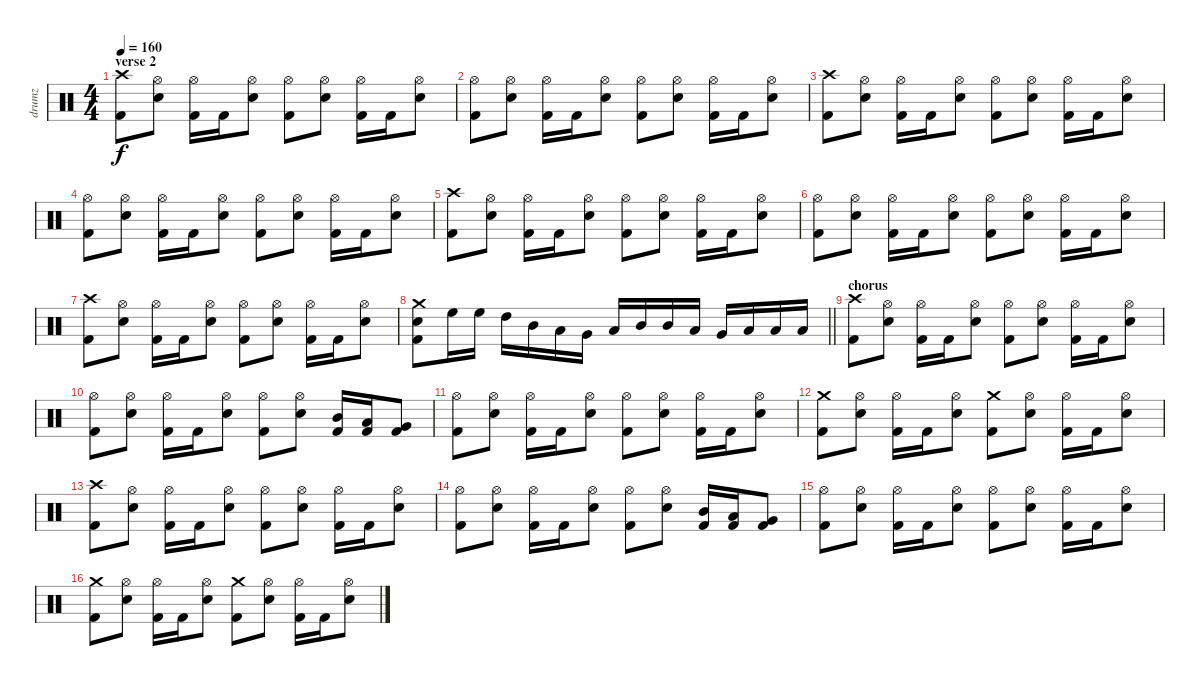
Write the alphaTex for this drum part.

\track ("drumz" "drumz") {instrument percussion}
\staff {score}
\articulation defaults
\ts (4 4)
\section ("" "verse 2")
\tempo 160
\clef neutral
\ks c
("Crash high (hit)" "Kick (hit) 2").8{dy f} ("Hi-Hat (open)" "Electric Snare (hit)").8 ("Hi-Hat (open)" "Kick (hit) 2").16 "Kick (hit) 2".16 ("Hi-Hat (open)" "Electric Snare (hit)").8 ("Hi-Hat (open)" "Kick (hit) 2").8 ("Hi-Hat (open)" "Electric Snare (hit)").8 ("Hi-Hat (open)" "Kick (hit) 2").16 "Kick (hit) 2".16 ("Hi-Hat (open)" "Electric Snare (hit)").8 |
("Hi-Hat (open)" "Kick (hit) 2").8 ("Hi-Hat (open)" "Electric Snare (hit)").8 ("Hi-Hat (open)" "Kick (hit) 2").16 "Kick (hit) 2".16 ("Hi-Hat (open)" "Electric Snare (hit)").8 ("Hi-Hat (open)" "Kick (hit) 2").8 ("Hi-Hat (open)" "Electric Snare (hit)").8 ("Hi-Hat (open)" "Kick (hit) 2").16 "Kick (hit) 2".16 ("Hi-Hat (open)" "Electric Snare (hit)").8 |
("Crash high (hit)" "Kick (hit) 2").8 ("Hi-Hat (open)" "Electric Snare (hit)").8 ("Hi-Hat (open)" "Kick (hit) 2").16 "Kick (hit) 2".16 ("Hi-Hat (open)" "Electric Snare (hit)").8 ("Hi-Hat (open)" "Kick (hit) 2").8 ("Hi-Hat (open)" "Electric Snare (hit)").8 ("Hi-Hat (open)" "Kick (hit) 2").16 "Kick (hit) 2".16 ("Hi-Hat (open)" "Electric Snare (hit)").8 |
("Hi-Hat (open)" "Kick (hit) 2").8 ("Hi-Hat (open)" "Electric Snare (hit)").8 ("Hi-Hat (open)" "Kick (hit) 2").16 "Kick (hit) 2".16 ("Hi-Hat (open)" "Electric Snare (hit)").8 ("Hi-Hat (open)" "Kick (hit) 2").8 ("Hi-Hat (open)" "Electric Snare (hit)").8 ("Hi-Hat (open)" "Kick (hit) 2").16 "Kick (hit) 2".16 ("Hi-Hat (open)" "Electric Snare (hit)").8 |
("Crash high (hit)" "Kick (hit) 2").8 ("Hi-Hat (open)" "Electric Snare (hit)").8 ("Hi-Hat (open)" "Kick (hit) 2").16 "Kick (hit) 2".16 ("Hi-Hat (open)" "Electric Snare (hit)").8 ("Hi-Hat (open)" "Kick (hit) 2").8 ("Hi-Hat (open)" "Electric Snare (hit)").8 ("Hi-Hat (open)" "Kick (hit) 2").16 "Kick (hit) 2".16 ("Hi-Hat (open)" "Electric Snare (hit)").8 |
("Hi-Hat (open)" "Kick (hit) 2").8 ("Hi-Hat (open)" "Electric Snare (hit)").8 ("Hi-Hat (open)" "Kick (hit) 2").16 "Kick (hit) 2".16 ("Hi-Hat (open)" "Electric Snare (hit)").8 ("Hi-Hat (open)" "Kick (hit) 2").8 ("Hi-Hat (open)" "Electric Snare (hit)").8 ("Hi-Hat (open)" "Kick (hit) 2").16 "Kick (hit) 2".16 ("Hi-Hat (open)" "Electric Snare (hit)").8 |
("Crash high (hit)" "Kick (hit) 2").8 ("Hi-Hat (open)" "Electric Snare (hit)").8 ("Hi-Hat (open)" "Kick (hit) 2").16 "Kick (hit) 2".16 ("Hi-Hat (open)" "Electric Snare (hit)").8 ("Hi-Hat (open)" "Kick (hit) 2").8 ("Hi-Hat (open)" "Electric Snare (hit)").8 ("Hi-Hat (open)" "Kick (hit) 2").16 "Kick (hit) 2".16 ("Hi-Hat (open)" "Electric Snare (hit)").8 |
\barLineRight lightlight
("Crash medium (hit)" "Electric Snare (hit)" "Kick (hit) 2").8 "High Floor Tom (hit)".16 "High Floor Tom (hit)".16 "High Tom (hit)".16 "Mid Tom (hit)".16 "Low Tom (hit)".16 "Very Low Tom (hit)".16 "Low Floor Tom (hit)".16 "Mid Tom (hit)".16 "Mid Tom (hit)".16 "Low Tom (hit)".16 "Very Low Tom (hit)".16 "Low Floor Tom (hit)".16 "Low Floor Tom (hit)".16 "Low Floor Tom (hit)".16 |
\section ("" "chorus")
("Crash high (hit)" "Kick (hit) 2").8 ("Hi-Hat (open)" "Electric Snare (hit)").8 ("Hi-Hat (open)" "Kick (hit) 2").16 "Kick (hit) 2".16 ("Hi-Hat (open)" "Electric Snare (hit)").8 ("Hi-Hat (open)" "Kick (hit) 2").8 ("Hi-Hat (open)" "Electric Snare (hit)").8 ("Hi-Hat (open)" "Kick (hit) 2").16 "Kick (hit) 2".16 ("Hi-Hat (open)" "Electric Snare (hit)").8 |
("Hi-Hat (open)" "Kick (hit) 2").8 ("Hi-Hat (open)" "Electric Snare (hit)").8 ("Hi-Hat (open)" "Kick (hit) 2").16 "Kick (hit) 2".16 ("Hi-Hat (open)" "Electric Snare (hit)").8 ("Hi-Hat (open)" "Kick (hit) 2").8 ("Hi-Hat (open)" "Electric Snare (hit)").8 ("Mid Tom (hit)" "Kick (hit) 2").16 ("Low Tom (hit)" "Kick (hit) 2").16 ("Very Low Tom (hit)" "Kick (hit) 2").8 |
("Hi-Hat (open)" "Kick (hit) 2").8 ("Hi-Hat (open)" "Electric Snare (hit)").8 ("Hi-Hat (open)" "Kick (hit) 2").16 "Kick (hit) 2".16 ("Hi-Hat (open)" "Electric Snare (hit)").8 ("Hi-Hat (open)" "Kick (hit) 2").8 ("Hi-Hat (open)" "Electric Snare (hit)").8 ("Hi-Hat (open)" "Kick (hit) 2").16 "Kick (hit) 2".16 ("Hi-Hat (open)" "Electric Snare (hit)").8 |
("Crash medium (hit)" "Kick (hit) 2").8 ("Hi-Hat (open)" "Electric Snare (hit)").8 ("Hi-Hat (open)" "Kick (hit) 2").16 "Kick (hit) 2".16 ("Hi-Hat (open)" "Electric Snare (hit)").8 ("Crash medium (hit)" "Kick (hit) 2").8 ("Hi-Hat (open)" "Electric Snare (hit)").8 ("Hi-Hat (open)" "Kick (hit) 2").16 "Kick (hit) 2".16 ("Hi-Hat (open)" "Electric Snare (hit)").8 |
("Crash high (hit)" "Kick (hit) 2").8 ("Hi-Hat (open)" "Electric Snare (hit)").8 ("Hi-Hat (open)" "Kick (hit) 2").16 "Kick (hit) 2".16 ("Hi-Hat (open)" "Electric Snare (hit)").8 ("Hi-Hat (open)" "Kick (hit) 2").8 ("Hi-Hat (open)" "Electric Snare (hit)").8 ("Hi-Hat (open)" "Kick (hit) 2").16 "Kick (hit) 2".16 ("Hi-Hat (open)" "Electric Snare (hit)").8 |
("Hi-Hat (open)" "Kick (hit) 2").8 ("Hi-Hat (open)" "Electric Snare (hit)").8 ("Hi-Hat (open)" "Kick (hit) 2").16 "Kick (hit) 2".16 ("Hi-Hat (open)" "Electric Snare (hit)").8 ("Hi-Hat (open)" "Kick (hit) 2").8 ("Hi-Hat (open)" "Electric Snare (hit)").8 ("Mid Tom (hit)" "Kick (hit) 2").16 ("Low Tom (hit)" "Kick (hit) 2").16 ("Very Low Tom (hit)" "Kick (hit) 2").8 |
("Hi-Hat (open)" "Kick (hit) 2").8 ("Hi-Hat (open)" "Electric Snare (hit)").8 ("Hi-Hat (open)" "Kick (hit) 2").16 "Kick (hit) 2".16 ("Hi-Hat (open)" "Electric Snare (hit)").8 ("Hi-Hat (open)" "Kick (hit) 2").8 ("Hi-Hat (open)" "Electric Snare (hit)").8 ("Hi-Hat (open)" "Kick (hit) 2").16 "Kick (hit) 2".16 ("Hi-Hat (open)" "Electric Snare (hit)").8 |
("Crash medium (hit)" "Kick (hit) 2").8 ("Hi-Hat (open)" "Electric Snare (hit)").8 ("Hi-Hat (open)" "Kick (hit) 2").16 "Kick (hit) 2".16 ("Hi-Hat (open)" "Electric Snare (hit)").8 ("Crash medium (hit)" "Kick (hit) 2").8 ("Hi-Hat (open)" "Electric Snare (hit)").8 ("Hi-Hat (open)" "Kick (hit) 2").16 "Kick (hit) 2".16 ("Hi-Hat (open)" "Electric Snare (hit)").8
